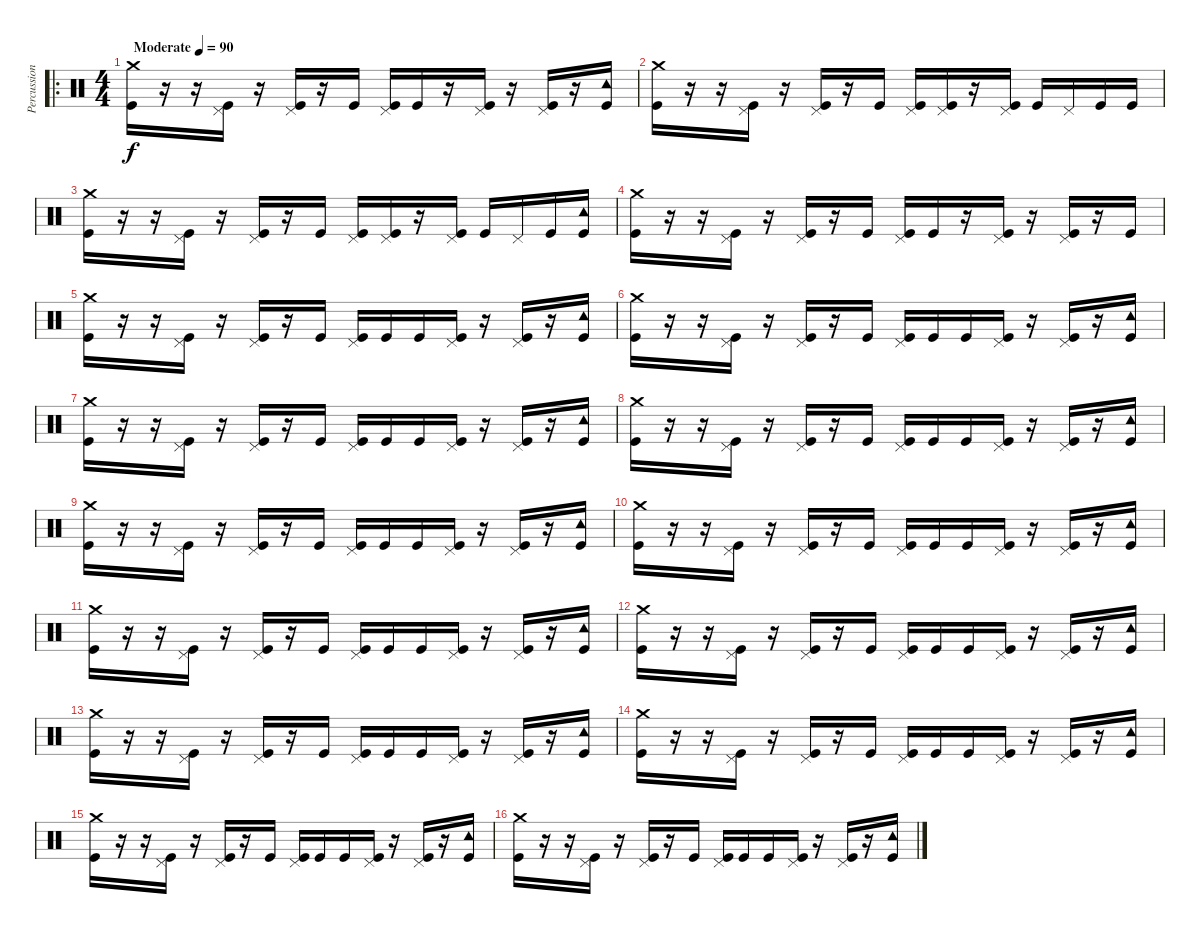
\track ("Percussion" "Percussion") {instrument percussion}
\staff {score}
\articulation defaults
\ro
\ts (4 4)
\tempo (90 "Moderate")
\clef neutral
\ks c
("Kick (hit)" "Crash medium (hit)").16{dy f} r.16 r.16 ("Kick (hit)" "Pedal Hi-Hat (hit)").16 r.16 ("Kick (hit)" "Pedal Hi-Hat (hit)").16 r.16 "Kick (hit)".16 ("Kick (hit)" "Pedal Hi-Hat (hit)").16 "Kick (hit)".16 r.16 ("Kick (hit)" "Pedal Hi-Hat (hit)").16 r.16 ("Kick (hit)" "Pedal Hi-Hat (hit)").16 r.16 ("Kick (hit)" "Tambourine (hit)").16 |
("Kick (hit)" "Crash medium (hit)").16 r.16 r.16 ("Kick (hit)" "Pedal Hi-Hat (hit)").16 r.16 ("Kick (hit)" "Pedal Hi-Hat (hit)").16 r.16 "Kick (hit)".16 ("Kick (hit)" "Pedal Hi-Hat (hit)").16 ("Kick (hit)" "Pedal Hi-Hat (hit)").16 r.16 ("Kick (hit)" "Pedal Hi-Hat (hit)").16 "Kick (hit)".16 "Pedal Hi-Hat (hit)".16 "Kick (hit)".16 "Kick (hit)".16 |
("Kick (hit)" "Crash medium (hit)").16 r.16 r.16 ("Kick (hit)" "Pedal Hi-Hat (hit)").16 r.16 ("Kick (hit)" "Pedal Hi-Hat (hit)").16 r.16 "Kick (hit)".16 ("Kick (hit)" "Pedal Hi-Hat (hit)").16 ("Kick (hit)" "Pedal Hi-Hat (hit)").16 r.16 ("Kick (hit)" "Pedal Hi-Hat (hit)").16 "Kick (hit)".16 "Pedal Hi-Hat (hit)".16 "Kick (hit)".16 ("Kick (hit)" "Tambourine (hit)").16 |
("Kick (hit)" "Crash medium (hit)").16 r.16 r.16 ("Kick (hit)" "Pedal Hi-Hat (hit)").16 r.16 ("Kick (hit)" "Pedal Hi-Hat (hit)").16 r.16 "Kick (hit)".16 ("Kick (hit)" "Pedal Hi-Hat (hit)").16 "Kick (hit)".16 r.16 ("Kick (hit)" "Pedal Hi-Hat (hit)").16 r.16 ("Kick (hit)" "Pedal Hi-Hat (hit)").16 r.16 "Kick (hit)".16 |
("Kick (hit)" "Crash medium (hit)").16 r.16 r.16 ("Kick (hit)" "Pedal Hi-Hat (hit)").16 r.16 ("Kick (hit)" "Pedal Hi-Hat (hit)").16 r.16 "Kick (hit)".16 ("Kick (hit)" "Pedal Hi-Hat (hit)").16 "Kick (hit)".16 "Kick (hit)".16 ("Kick (hit)" "Pedal Hi-Hat (hit)").16 r.16 ("Kick (hit)" "Pedal Hi-Hat (hit)").16 r.16 ("Kick (hit)" "Tambourine (hit)").16 |
("Kick (hit)" "Crash medium (hit)").16 r.16 r.16 ("Kick (hit)" "Pedal Hi-Hat (hit)").16 r.16 ("Kick (hit)" "Pedal Hi-Hat (hit)").16 r.16 "Kick (hit)".16 ("Kick (hit)" "Pedal Hi-Hat (hit)").16 "Kick (hit)".16 "Kick (hit)".16 ("Kick (hit)" "Pedal Hi-Hat (hit)").16 r.16 ("Kick (hit)" "Pedal Hi-Hat (hit)").16 r.16 ("Kick (hit)" "Tambourine (hit)").16 |
("Kick (hit)" "Crash medium (hit)").16 r.16 r.16 ("Kick (hit)" "Pedal Hi-Hat (hit)").16 r.16 ("Kick (hit)" "Pedal Hi-Hat (hit)").16 r.16 "Kick (hit)".16 ("Kick (hit)" "Pedal Hi-Hat (hit)").16 "Kick (hit)".16 "Kick (hit)".16 ("Kick (hit)" "Pedal Hi-Hat (hit)").16 r.16 ("Kick (hit)" "Pedal Hi-Hat (hit)").16 r.16 ("Kick (hit)" "Tambourine (hit)").16 |
("Kick (hit)" "Crash medium (hit)").16 r.16 r.16 ("Kick (hit)" "Pedal Hi-Hat (hit)").16 r.16 ("Kick (hit)" "Pedal Hi-Hat (hit)").16 r.16 "Kick (hit)".16 ("Kick (hit)" "Pedal Hi-Hat (hit)").16 "Kick (hit)".16 "Kick (hit)".16 ("Kick (hit)" "Pedal Hi-Hat (hit)").16 r.16 ("Kick (hit)" "Pedal Hi-Hat (hit)").16 r.16 ("Kick (hit)" "Tambourine (hit)").16 |
("Kick (hit)" "Crash medium (hit)").16 r.16 r.16 ("Kick (hit)" "Pedal Hi-Hat (hit)").16 r.16 ("Kick (hit)" "Pedal Hi-Hat (hit)").16 r.16 "Kick (hit)".16 ("Kick (hit)" "Pedal Hi-Hat (hit)").16 "Kick (hit)".16 "Kick (hit)".16 ("Kick (hit)" "Pedal Hi-Hat (hit)").16 r.16 ("Kick (hit)" "Pedal Hi-Hat (hit)").16 r.16 ("Kick (hit)" "Tambourine (hit)").16 |
("Kick (hit)" "Crash medium (hit)").16 r.16 r.16 ("Kick (hit)" "Pedal Hi-Hat (hit)").16 r.16 ("Kick (hit)" "Pedal Hi-Hat (hit)").16 r.16 "Kick (hit)".16 ("Kick (hit)" "Pedal Hi-Hat (hit)").16 "Kick (hit)".16 "Kick (hit)".16 ("Kick (hit)" "Pedal Hi-Hat (hit)").16 r.16 ("Kick (hit)" "Pedal Hi-Hat (hit)").16 r.16 ("Kick (hit)" "Tambourine (hit)").16 |
("Kick (hit)" "Crash medium (hit)").16 r.16 r.16 ("Kick (hit)" "Pedal Hi-Hat (hit)").16 r.16 ("Kick (hit)" "Pedal Hi-Hat (hit)").16 r.16 "Kick (hit)".16 ("Kick (hit)" "Pedal Hi-Hat (hit)").16 "Kick (hit)".16 "Kick (hit)".16 ("Kick (hit)" "Pedal Hi-Hat (hit)").16 r.16 ("Kick (hit)" "Pedal Hi-Hat (hit)").16 r.16 ("Kick (hit)" "Tambourine (hit)").16 |
("Kick (hit)" "Crash medium (hit)").16 r.16 r.16 ("Kick (hit)" "Pedal Hi-Hat (hit)").16 r.16 ("Kick (hit)" "Pedal Hi-Hat (hit)").16 r.16 "Kick (hit)".16 ("Kick (hit)" "Pedal Hi-Hat (hit)").16 "Kick (hit)".16 "Kick (hit)".16 ("Kick (hit)" "Pedal Hi-Hat (hit)").16 r.16 ("Kick (hit)" "Pedal Hi-Hat (hit)").16 r.16 ("Kick (hit)" "Tambourine (hit)").16 |
("Kick (hit)" "Crash medium (hit)").16 r.16 r.16 ("Kick (hit)" "Pedal Hi-Hat (hit)").16 r.16 ("Kick (hit)" "Pedal Hi-Hat (hit)").16 r.16 "Kick (hit)".16 ("Kick (hit)" "Pedal Hi-Hat (hit)").16 "Kick (hit)".16 "Kick (hit)".16 ("Kick (hit)" "Pedal Hi-Hat (hit)").16 r.16 ("Kick (hit)" "Pedal Hi-Hat (hit)").16 r.16 ("Kick (hit)" "Tambourine (hit)").16 |
("Kick (hit)" "Crash medium (hit)").16 r.16 r.16 ("Kick (hit)" "Pedal Hi-Hat (hit)").16 r.16 ("Kick (hit)" "Pedal Hi-Hat (hit)").16 r.16 "Kick (hit)".16 ("Kick (hit)" "Pedal Hi-Hat (hit)").16 "Kick (hit)".16 "Kick (hit)".16 ("Kick (hit)" "Pedal Hi-Hat (hit)").16 r.16 ("Kick (hit)" "Pedal Hi-Hat (hit)").16 r.16 ("Kick (hit)" "Tambourine (hit)").16 |
("Kick (hit)" "Crash medium (hit)").16 r.16 r.16 ("Kick (hit)" "Pedal Hi-Hat (hit)").16 r.16 ("Kick (hit)" "Pedal Hi-Hat (hit)").16 r.16 "Kick (hit)".16 ("Kick (hit)" "Pedal Hi-Hat (hit)").16 "Kick (hit)".16 "Kick (hit)".16 ("Kick (hit)" "Pedal Hi-Hat (hit)").16 r.16 ("Kick (hit)" "Pedal Hi-Hat (hit)").16 r.16 ("Kick (hit)" "Tambourine (hit)").16 |
("Kick (hit)" "Crash medium (hit)").16 r.16 r.16 ("Kick (hit)" "Pedal Hi-Hat (hit)").16 r.16 ("Kick (hit)" "Pedal Hi-Hat (hit)").16 r.16 "Kick (hit)".16 ("Kick (hit)" "Pedal Hi-Hat (hit)").16 "Kick (hit)".16 "Kick (hit)".16 ("Kick (hit)" "Pedal Hi-Hat (hit)").16 r.16 ("Kick (hit)" "Pedal Hi-Hat (hit)").16 r.16 ("Kick (hit)" "Tambourine (hit)").16
